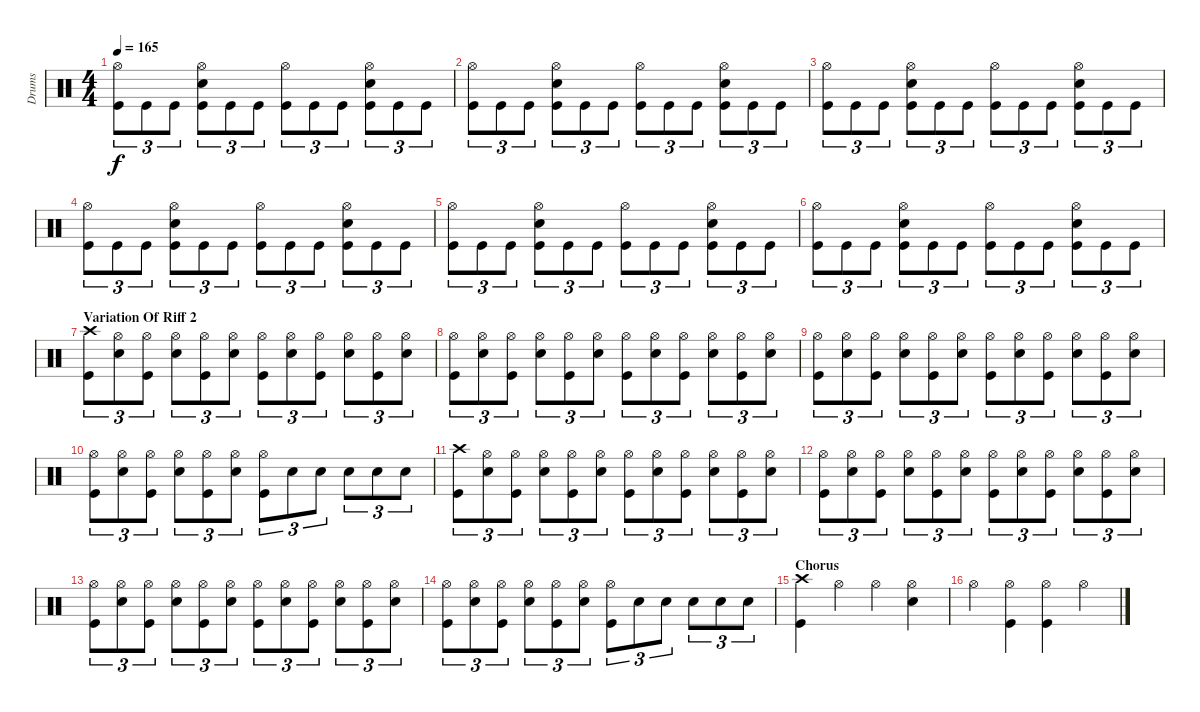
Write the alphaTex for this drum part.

\track ("Drums" "Drums") {instrument percussion}
\staff {score}
\articulation defaults
\ts (4 4)
\tempo 165
\clef neutral
\ks c
("Hi-Hat (open)" "Kick (hit)").8{tu (3 2) dy f} "Kick (hit)".8{tu (3 2)} "Kick (hit)".8{tu (3 2)} ("Hi-Hat (open)" "Electric Snare (hit)" "Kick (hit)").8{tu (3 2)} "Kick (hit)".8{tu (3 2)} "Kick (hit)".8{tu (3 2)} ("Hi-Hat (open)" "Kick (hit)").8{tu (3 2)} "Kick (hit)".8{tu (3 2)} "Kick (hit)".8{tu (3 2)} ("Hi-Hat (open)" "Electric Snare (hit)" "Kick (hit)").8{tu (3 2)} "Kick (hit)".8{tu (3 2)} "Kick (hit)".8{tu (3 2)} |
("Hi-Hat (open)" "Kick (hit)").8{tu (3 2)} "Kick (hit)".8{tu (3 2)} "Kick (hit)".8{tu (3 2)} ("Hi-Hat (open)" "Electric Snare (hit)" "Kick (hit)").8{tu (3 2)} "Kick (hit)".8{tu (3 2)} "Kick (hit)".8{tu (3 2)} ("Hi-Hat (open)" "Kick (hit)").8{tu (3 2)} "Kick (hit)".8{tu (3 2)} "Kick (hit)".8{tu (3 2)} ("Hi-Hat (open)" "Electric Snare (hit)" "Kick (hit)").8{tu (3 2)} "Kick (hit)".8{tu (3 2)} "Kick (hit)".8{tu (3 2)} |
("Hi-Hat (open)" "Kick (hit)").8{tu (3 2)} "Kick (hit)".8{tu (3 2)} "Kick (hit)".8{tu (3 2)} ("Hi-Hat (open)" "Electric Snare (hit)" "Kick (hit)").8{tu (3 2)} "Kick (hit)".8{tu (3 2)} "Kick (hit)".8{tu (3 2)} ("Hi-Hat (open)" "Kick (hit)").8{tu (3 2)} "Kick (hit)".8{tu (3 2)} "Kick (hit)".8{tu (3 2)} ("Hi-Hat (open)" "Electric Snare (hit)" "Kick (hit)").8{tu (3 2)} "Kick (hit)".8{tu (3 2)} "Kick (hit)".8{tu (3 2)} |
("Hi-Hat (open)" "Kick (hit)").8{tu (3 2)} "Kick (hit)".8{tu (3 2)} "Kick (hit)".8{tu (3 2)} ("Hi-Hat (open)" "Electric Snare (hit)" "Kick (hit)").8{tu (3 2)} "Kick (hit)".8{tu (3 2)} "Kick (hit)".8{tu (3 2)} ("Hi-Hat (open)" "Kick (hit)").8{tu (3 2)} "Kick (hit)".8{tu (3 2)} "Kick (hit)".8{tu (3 2)} ("Hi-Hat (open)" "Electric Snare (hit)" "Kick (hit)").8{tu (3 2)} "Kick (hit)".8{tu (3 2)} "Kick (hit)".8{tu (3 2)} |
("Hi-Hat (open)" "Kick (hit)").8{tu (3 2)} "Kick (hit)".8{tu (3 2)} "Kick (hit)".8{tu (3 2)} ("Hi-Hat (open)" "Electric Snare (hit)" "Kick (hit)").8{tu (3 2)} "Kick (hit)".8{tu (3 2)} "Kick (hit)".8{tu (3 2)} ("Hi-Hat (open)" "Kick (hit)").8{tu (3 2)} "Kick (hit)".8{tu (3 2)} "Kick (hit)".8{tu (3 2)} ("Hi-Hat (open)" "Electric Snare (hit)" "Kick (hit)").8{tu (3 2)} "Kick (hit)".8{tu (3 2)} "Kick (hit)".8{tu (3 2)} |
("Hi-Hat (open)" "Kick (hit)").8{tu (3 2)} "Kick (hit)".8{tu (3 2)} "Kick (hit)".8{tu (3 2)} ("Hi-Hat (open)" "Electric Snare (hit)" "Kick (hit)").8{tu (3 2)} "Kick (hit)".8{tu (3 2)} "Kick (hit)".8{tu (3 2)} ("Hi-Hat (open)" "Kick (hit)").8{tu (3 2)} "Kick (hit)".8{tu (3 2)} "Kick (hit)".8{tu (3 2)} ("Hi-Hat (open)" "Electric Snare (hit)" "Kick (hit)").8{tu (3 2)} "Kick (hit)".8{tu (3 2)} "Kick (hit)".8{tu (3 2)} |
\section ("" "Variation Of Riff 2")
("Crash high (hit)" "Kick (hit)").8{tu (3 2)} ("Hi-Hat (open)" "Electric Snare (hit)").8{tu (3 2)} ("Hi-Hat (open)" "Kick (hit)").8{tu (3 2)} ("Hi-Hat (open)" "Electric Snare (hit)").8{tu (3 2)} ("Hi-Hat (open)" "Kick (hit)").8{tu (3 2)} ("Hi-Hat (open)" "Electric Snare (hit)").8{tu (3 2)} ("Hi-Hat (open)" "Kick (hit)").8{tu (3 2)} ("Hi-Hat (open)" "Electric Snare (hit)").8{tu (3 2)} ("Hi-Hat (open)" "Kick (hit)").8{tu (3 2)} ("Hi-Hat (open)" "Electric Snare (hit)").8{tu (3 2)} ("Hi-Hat (open)" "Kick (hit)").8{tu (3 2)} ("Hi-Hat (open)" "Electric Snare (hit)").8{tu (3 2)} |
("Hi-Hat (open)" "Kick (hit)").8{tu (3 2)} ("Hi-Hat (open)" "Electric Snare (hit)").8{tu (3 2)} ("Hi-Hat (open)" "Kick (hit)").8{tu (3 2)} ("Hi-Hat (open)" "Electric Snare (hit)").8{tu (3 2)} ("Hi-Hat (open)" "Kick (hit)").8{tu (3 2)} ("Hi-Hat (open)" "Electric Snare (hit)").8{tu (3 2)} ("Hi-Hat (open)" "Kick (hit)").8{tu (3 2)} ("Hi-Hat (open)" "Electric Snare (hit)").8{tu (3 2)} ("Hi-Hat (open)" "Kick (hit)").8{tu (3 2)} ("Hi-Hat (open)" "Electric Snare (hit)").8{tu (3 2)} ("Hi-Hat (open)" "Kick (hit)").8{tu (3 2)} ("Hi-Hat (open)" "Electric Snare (hit)").8{tu (3 2)} |
("Hi-Hat (open)" "Kick (hit)").8{tu (3 2)} ("Hi-Hat (open)" "Electric Snare (hit)").8{tu (3 2)} ("Hi-Hat (open)" "Kick (hit)").8{tu (3 2)} ("Hi-Hat (open)" "Electric Snare (hit)").8{tu (3 2)} ("Hi-Hat (open)" "Kick (hit)").8{tu (3 2)} ("Hi-Hat (open)" "Electric Snare (hit)").8{tu (3 2)} ("Hi-Hat (open)" "Kick (hit)").8{tu (3 2)} ("Hi-Hat (open)" "Electric Snare (hit)").8{tu (3 2)} ("Hi-Hat (open)" "Kick (hit)").8{tu (3 2)} ("Hi-Hat (open)" "Electric Snare (hit)").8{tu (3 2)} ("Hi-Hat (open)" "Kick (hit)").8{tu (3 2)} ("Hi-Hat (open)" "Electric Snare (hit)").8{tu (3 2)} |
("Hi-Hat (open)" "Kick (hit)").8{tu (3 2)} ("Hi-Hat (open)" "Electric Snare (hit)").8{tu (3 2)} ("Hi-Hat (open)" "Kick (hit)").8{tu (3 2)} ("Hi-Hat (open)" "Electric Snare (hit)").8{tu (3 2)} ("Hi-Hat (open)" "Kick (hit)").8{tu (3 2)} ("Hi-Hat (open)" "Electric Snare (hit)").8{tu (3 2)} ("Hi-Hat (open)" "Kick (hit)").8{tu (3 2)} "Electric Snare (hit)".8{tu (3 2)} "Electric Snare (hit)".8{tu (3 2)} "Electric Snare (hit)".8{tu (3 2)} "Electric Snare (hit)".8{tu (3 2)} "Electric Snare (hit)".8{tu (3 2)} |
("Crash high (hit)" "Kick (hit)").8{tu (3 2)} ("Hi-Hat (open)" "Electric Snare (hit)").8{tu (3 2)} ("Hi-Hat (open)" "Kick (hit)").8{tu (3 2)} ("Hi-Hat (open)" "Electric Snare (hit)").8{tu (3 2)} ("Hi-Hat (open)" "Kick (hit)").8{tu (3 2)} ("Hi-Hat (open)" "Electric Snare (hit)").8{tu (3 2)} ("Hi-Hat (open)" "Kick (hit)").8{tu (3 2)} ("Hi-Hat (open)" "Electric Snare (hit)").8{tu (3 2)} ("Hi-Hat (open)" "Kick (hit)").8{tu (3 2)} ("Hi-Hat (open)" "Electric Snare (hit)").8{tu (3 2)} ("Hi-Hat (open)" "Kick (hit)").8{tu (3 2)} ("Hi-Hat (open)" "Electric Snare (hit)").8{tu (3 2)} |
("Hi-Hat (open)" "Kick (hit)").8{tu (3 2)} ("Hi-Hat (open)" "Electric Snare (hit)").8{tu (3 2)} ("Hi-Hat (open)" "Kick (hit)").8{tu (3 2)} ("Hi-Hat (open)" "Electric Snare (hit)").8{tu (3 2)} ("Hi-Hat (open)" "Kick (hit)").8{tu (3 2)} ("Hi-Hat (open)" "Electric Snare (hit)").8{tu (3 2)} ("Hi-Hat (open)" "Kick (hit)").8{tu (3 2)} ("Hi-Hat (open)" "Electric Snare (hit)").8{tu (3 2)} ("Hi-Hat (open)" "Kick (hit)").8{tu (3 2)} ("Hi-Hat (open)" "Electric Snare (hit)").8{tu (3 2)} ("Hi-Hat (open)" "Kick (hit)").8{tu (3 2)} ("Hi-Hat (open)" "Electric Snare (hit)").8{tu (3 2)} |
("Hi-Hat (open)" "Kick (hit)").8{tu (3 2)} ("Hi-Hat (open)" "Electric Snare (hit)").8{tu (3 2)} ("Hi-Hat (open)" "Kick (hit)").8{tu (3 2)} ("Hi-Hat (open)" "Electric Snare (hit)").8{tu (3 2)} ("Hi-Hat (open)" "Kick (hit)").8{tu (3 2)} ("Hi-Hat (open)" "Electric Snare (hit)").8{tu (3 2)} ("Hi-Hat (open)" "Kick (hit)").8{tu (3 2)} ("Hi-Hat (open)" "Electric Snare (hit)").8{tu (3 2)} ("Hi-Hat (open)" "Kick (hit)").8{tu (3 2)} ("Hi-Hat (open)" "Electric Snare (hit)").8{tu (3 2)} ("Hi-Hat (open)" "Kick (hit)").8{tu (3 2)} ("Hi-Hat (open)" "Electric Snare (hit)").8{tu (3 2)} |
("Hi-Hat (open)" "Kick (hit)").8{tu (3 2)} ("Hi-Hat (open)" "Electric Snare (hit)").8{tu (3 2)} ("Hi-Hat (open)" "Kick (hit)").8{tu (3 2)} ("Hi-Hat (open)" "Electric Snare (hit)").8{tu (3 2)} ("Hi-Hat (open)" "Kick (hit)").8{tu (3 2)} ("Hi-Hat (open)" "Electric Snare (hit)").8{tu (3 2)} ("Hi-Hat (open)" "Kick (hit)").8{tu (3 2)} "Electric Snare (hit)".8{tu (3 2)} "Electric Snare (hit)".8{tu (3 2)} "Electric Snare (hit)".8{tu (3 2)} "Electric Snare (hit)".8{tu (3 2)} "Electric Snare (hit)".8{tu (3 2)} |
\section ("" "Chorus")
("Crash high (hit)" "Kick (hit)").4 "Hi-Hat (open)".4 "Hi-Hat (open)".4 ("Hi-Hat (open)" "Electric Snare (hit)").4 |
"Hi-Hat (open)".4 ("Hi-Hat (open)" "Kick (hit)").4 ("Hi-Hat (open)" "Kick (hit)").4 "Hi-Hat (open)".4
